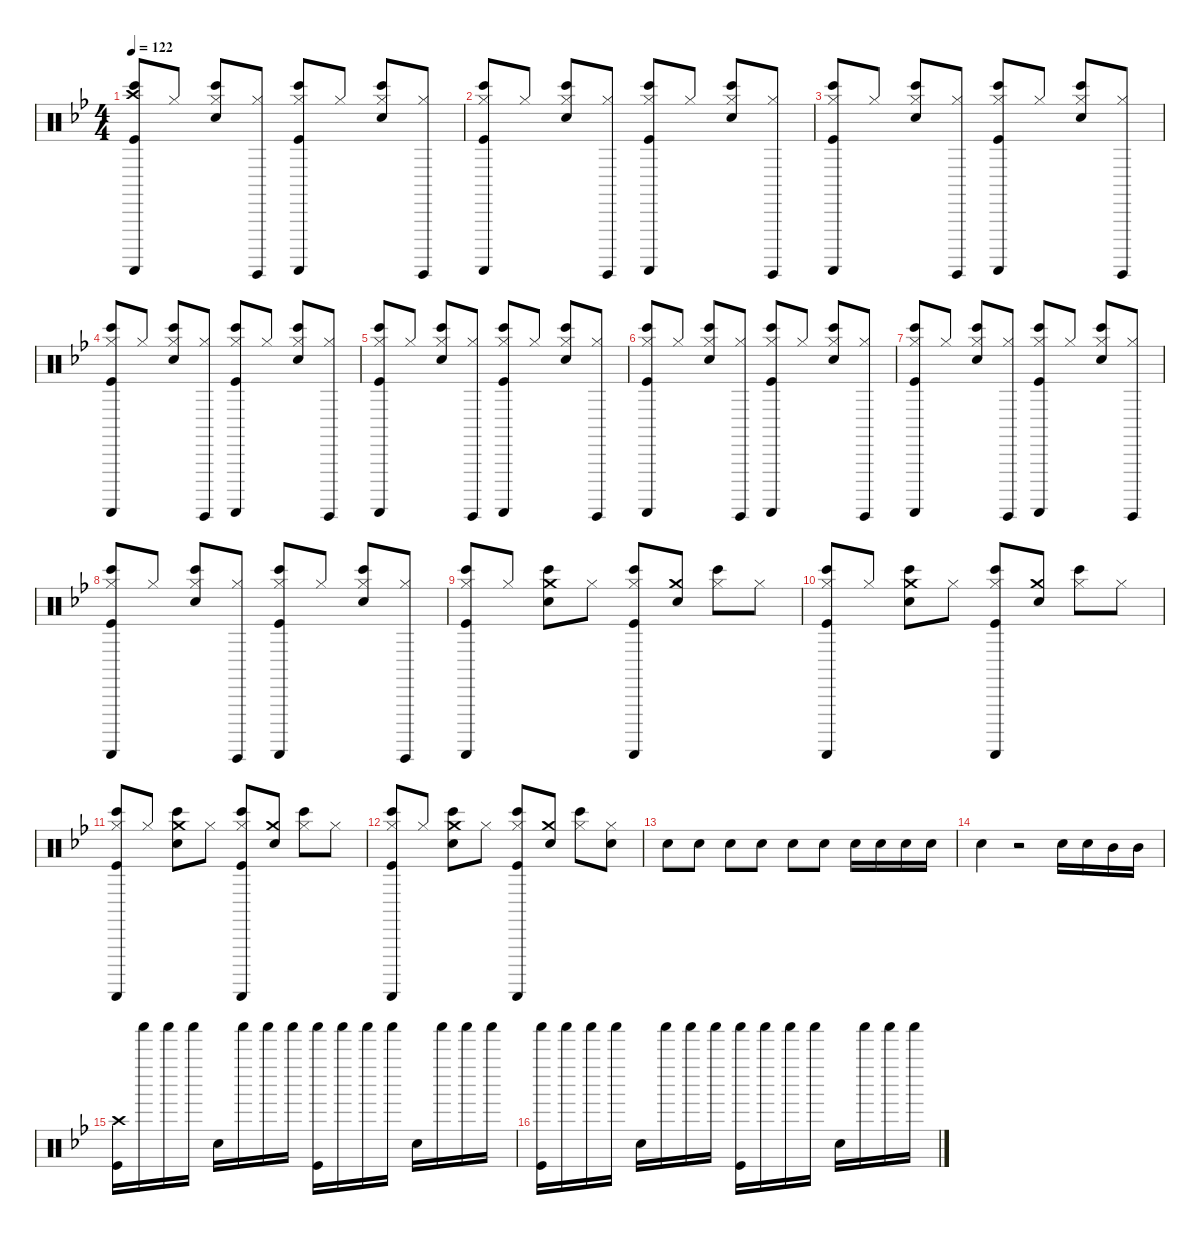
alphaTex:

\defaultSystemsLayout 4
\hideDynamics
\bracketExtendMode nobrackets
\singleTrackTrackNamePolicy hidden
\multiTrackTrackNamePolicy hidden
\firstSystemTrackNameMode fullname
\firstSystemTrackNameOrientation horizontal
\otherSystemsTrackNameOrientation horizontal
\track ("Percussions" "drm.") {instrument percussion}
\staff {score}
\articulation defaults
\ts (4 4)
\tempo 122
\clef neutral
\ks bb
("Crash high (hit)"{acc forcenatural} "Bongo High (hit)"{acc forcenatural} "Guiro (scrap-return)"{acc forcenatural} "Kick (hit)"{acc forcenatural}).8{dy f beam Up} "Hi-Hat (closed)"{acc forcenatural}.8{dy mp beam Up} ("Hi-Hat (closed)"{acc forcenatural} "Bongo High (hit)"{acc forcenatural} "Snare (hit) 2"{acc forcenatural}).8{dy f beam Up} ("Hi-Hat (closed)"{acc forcenatural} "Guiro (hit)"{acc forcenatural}).8{dy mp beam Up} ("Hi-Hat (closed)"{acc forcenatural} "Bongo High (hit)"{acc forcenatural} "Guiro (scrap-return)"{acc forcenatural} "Kick (hit)"{acc forcenatural}).8{dy f beam Up} "Hi-Hat (closed)"{acc forcenatural}.8{dy mp beam Up} ("Hi-Hat (closed)"{acc forcenatural} "Bongo High (hit)"{acc forcenatural} "Snare (hit) 2"{acc forcenatural}).8{dy f beam Up} ("Hi-Hat (closed)"{acc forcenatural} "Guiro (hit)"{acc forcenatural}).8{dy mp beam Up} |
("Hi-Hat (closed)"{acc forcenatural} "Bongo High (hit)"{acc forcenatural} "Guiro (scrap-return)"{acc forcenatural} "Kick (hit)"{acc forcenatural}).8{dy f beam Up} "Hi-Hat (closed)"{acc forcenatural}.8{dy mp beam Up} ("Hi-Hat (closed)"{acc forcenatural} "Bongo High (hit)"{acc forcenatural} "Snare (hit) 2"{acc forcenatural}).8{dy f beam Up} ("Hi-Hat (closed)"{acc forcenatural} "Guiro (hit)"{acc forcenatural}).8{dy mp beam Up} ("Hi-Hat (closed)"{acc forcenatural} "Bongo High (hit)"{acc forcenatural} "Guiro (scrap-return)"{acc forcenatural} "Kick (hit)"{acc forcenatural}).8{dy f beam Up} "Hi-Hat (closed)"{acc forcenatural}.8{dy mp beam Up} ("Hi-Hat (closed)"{acc forcenatural} "Bongo High (hit)"{acc forcenatural} "Snare (hit) 2"{acc forcenatural}).8{dy f beam Up} ("Hi-Hat (closed)"{acc forcenatural} "Guiro (hit)"{acc forcenatural}).8{dy mp beam Up} |
("Hi-Hat (closed)"{acc forcenatural} "Bongo High (hit)"{acc forcenatural} "Guiro (scrap-return)"{acc forcenatural} "Kick (hit)"{acc forcenatural}).8{dy f beam Up} "Hi-Hat (closed)"{acc forcenatural}.8{dy mp beam Up} ("Hi-Hat (closed)"{acc forcenatural} "Bongo High (hit)"{acc forcenatural} "Snare (hit) 2"{acc forcenatural}).8{dy f beam Up} ("Hi-Hat (closed)"{acc forcenatural} "Guiro (hit)"{acc forcenatural}).8{dy mp beam Up} ("Hi-Hat (closed)"{acc forcenatural} "Bongo High (hit)"{acc forcenatural} "Guiro (scrap-return)"{acc forcenatural} "Kick (hit)"{acc forcenatural}).8{dy f beam Up} "Hi-Hat (closed)"{acc forcenatural}.8{dy mp beam Up} ("Hi-Hat (closed)"{acc forcenatural} "Bongo High (hit)"{acc forcenatural} "Snare (hit) 2"{acc forcenatural}).8{dy f beam Up} ("Hi-Hat (closed)"{acc forcenatural} "Guiro (hit)"{acc forcenatural}).8{dy mp beam Up} |
("Hi-Hat (closed)"{acc forcenatural} "Bongo High (hit)"{acc forcenatural} "Guiro (scrap-return)"{acc forcenatural} "Kick (hit)"{acc forcenatural}).8{dy f beam Up} "Hi-Hat (closed)"{acc forcenatural}.8{dy mp beam Up} ("Hi-Hat (closed)"{acc forcenatural} "Bongo High (hit)"{acc forcenatural} "Snare (hit) 2"{acc forcenatural}).8{dy f beam Up} ("Hi-Hat (closed)"{acc forcenatural} "Guiro (hit)"{acc forcenatural}).8{dy mp beam Up} ("Hi-Hat (closed)"{acc forcenatural} "Bongo High (hit)"{acc forcenatural} "Guiro (scrap-return)"{acc forcenatural} "Kick (hit)"{acc forcenatural}).8{dy f beam Up} "Hi-Hat (closed)"{acc forcenatural}.8{dy mp beam Up} ("Hi-Hat (closed)"{acc forcenatural} "Bongo High (hit)"{acc forcenatural} "Snare (hit) 2"{acc forcenatural}).8{dy f beam Up} ("Hi-Hat (closed)"{acc forcenatural} "Guiro (hit)"{acc forcenatural}).8{dy mp beam Up} |
("Hi-Hat (closed)"{acc forcenatural} "Bongo High (hit)"{acc forcenatural} "Guiro (scrap-return)"{acc forcenatural} "Kick (hit)"{acc forcenatural}).8{dy f beam Up} "Hi-Hat (closed)"{acc forcenatural}.8{dy mp beam Up} ("Hi-Hat (closed)"{acc forcenatural} "Bongo High (hit)"{acc forcenatural} "Snare (hit) 2"{acc forcenatural}).8{dy f beam Up} ("Hi-Hat (closed)"{acc forcenatural} "Guiro (hit)"{acc forcenatural}).8{dy mp beam Up} ("Hi-Hat (closed)"{acc forcenatural} "Bongo High (hit)"{acc forcenatural} "Guiro (scrap-return)"{acc forcenatural} "Kick (hit)"{acc forcenatural}).8{dy f beam Up} "Hi-Hat (closed)"{acc forcenatural}.8{dy mp beam Up} ("Hi-Hat (closed)"{acc forcenatural} "Bongo High (hit)"{acc forcenatural} "Snare (hit) 2"{acc forcenatural}).8{dy f beam Up} ("Hi-Hat (closed)"{acc forcenatural} "Guiro (hit)"{acc forcenatural}).8{dy mp beam Up} |
("Hi-Hat (closed)"{acc forcenatural} "Bongo High (hit)"{acc forcenatural} "Guiro (scrap-return)"{acc forcenatural} "Kick (hit)"{acc forcenatural}).8{dy f beam Up} "Hi-Hat (closed)"{acc forcenatural}.8{dy mp beam Up} ("Hi-Hat (closed)"{acc forcenatural} "Bongo High (hit)"{acc forcenatural} "Snare (hit) 2"{acc forcenatural}).8{dy f beam Up} ("Hi-Hat (closed)"{acc forcenatural} "Guiro (hit)"{acc forcenatural}).8{dy mp beam Up} ("Hi-Hat (closed)"{acc forcenatural} "Bongo High (hit)"{acc forcenatural} "Guiro (scrap-return)"{acc forcenatural} "Kick (hit)"{acc forcenatural}).8{dy f beam Up} "Hi-Hat (closed)"{acc forcenatural}.8{dy mp beam Up} ("Hi-Hat (closed)"{acc forcenatural} "Bongo High (hit)"{acc forcenatural} "Snare (hit) 2"{acc forcenatural}).8{dy f beam Up} ("Hi-Hat (closed)"{acc forcenatural} "Guiro (hit)"{acc forcenatural}).8{dy mp beam Up} |
("Hi-Hat (closed)"{acc forcenatural} "Bongo High (hit)"{acc forcenatural} "Guiro (scrap-return)"{acc forcenatural} "Kick (hit)"{acc forcenatural}).8{dy f beam Up} "Hi-Hat (closed)"{acc forcenatural}.8{dy mp beam Up} ("Hi-Hat (closed)"{acc forcenatural} "Bongo High (hit)"{acc forcenatural} "Snare (hit) 2"{acc forcenatural}).8{dy f beam Up} ("Hi-Hat (closed)"{acc forcenatural} "Guiro (hit)"{acc forcenatural}).8{dy mp beam Up} ("Hi-Hat (closed)"{acc forcenatural} "Bongo High (hit)"{acc forcenatural} "Guiro (scrap-return)"{acc forcenatural} "Kick (hit)"{acc forcenatural}).8{dy f beam Up} "Hi-Hat (closed)"{acc forcenatural}.8{dy mp beam Up} ("Hi-Hat (closed)"{acc forcenatural} "Bongo High (hit)"{acc forcenatural} "Snare (hit) 2"{acc forcenatural}).8{dy f beam Up} ("Hi-Hat (closed)"{acc forcenatural} "Guiro (hit)"{acc forcenatural}).8{dy mp beam Up} |
("Hi-Hat (closed)"{acc forcenatural} "Bongo High (hit)"{acc forcenatural} "Guiro (scrap-return)"{acc forcenatural} "Kick (hit)"{acc forcenatural}).8{dy f beam Up} "Hi-Hat (closed)"{acc forcenatural}.8{dy mp beam Up} ("Hi-Hat (closed)"{acc forcenatural} "Bongo High (hit)"{acc forcenatural} "Snare (hit) 2"{acc forcenatural}).8{dy f beam Up} ("Hi-Hat (closed)"{acc forcenatural} "Guiro (hit)"{acc forcenatural}).8{dy mp beam Up} ("Hi-Hat (closed)"{acc forcenatural} "Bongo High (hit)"{acc forcenatural} "Guiro (scrap-return)"{acc forcenatural} "Kick (hit)"{acc forcenatural}).8{dy f beam Up} "Hi-Hat (closed)"{acc forcenatural}.8{dy mp beam Up} ("Hi-Hat (closed)"{acc forcenatural} "Bongo High (hit)"{acc forcenatural} "Snare (hit) 2"{acc forcenatural}).8{dy f beam Up} ("Hi-Hat (closed)"{acc forcenatural} "Guiro (hit)"{acc forcenatural}).8{dy mp beam Up} |
("Hi-Hat (closed)"{acc forcenatural} "Bongo High (hit)"{acc forcenatural} "Guiro (scrap-return)"{acc forcenatural} "Kick (hit)"{acc forcenatural}).8{dy f beam Up} "Hi-Hat (closed)"{acc forcenatural}.8{dy mp beam Up} ("Crash medium (hit)"{acc forcenatural} "Bongo High (hit)"{acc forcenatural} "Snare (hit) 2"{acc forcenatural}).8{dy f beam Down} "Hi-Hat (closed)"{acc forcenatural}.8{dy mp beam Down} ("Hi-Hat (closed)"{acc forcenatural} "Bongo High (hit)"{acc forcenatural} "Guiro (scrap-return)"{acc forcenatural} "Kick (hit)"{acc forcenatural}).8{dy f beam Up} ("Crash medium (hit)"{acc forcenatural} "Snare (hit) 2"{acc forcenatural}).8{beam Up} ("Hi-Hat (closed)"{acc forcenatural} "Bongo High (hit)"{acc forcenatural}).8{beam Down} "Hi-Hat (closed)"{acc forcenatural}.8{dy mp beam Down} |
("Hi-Hat (closed)"{acc forcenatural} "Bongo High (hit)"{acc forcenatural} "Guiro (scrap-return)"{acc forcenatural} "Kick (hit)"{acc forcenatural}).8{dy f beam Up} "Hi-Hat (closed)"{acc forcenatural}.8{dy mp beam Up} ("Crash medium (hit)"{acc forcenatural} "Bongo High (hit)"{acc forcenatural} "Snare (hit) 2"{acc forcenatural}).8{dy f beam Down} "Hi-Hat (closed)"{acc forcenatural}.8{dy mp beam Down} ("Hi-Hat (closed)"{acc forcenatural} "Bongo High (hit)"{acc forcenatural} "Guiro (scrap-return)"{acc forcenatural} "Kick (hit)"{acc forcenatural}).8{dy f beam Up} ("Crash medium (hit)"{acc forcenatural} "Snare (hit) 2"{acc forcenatural}).8{beam Up} ("Hi-Hat (closed)"{acc forcenatural} "Bongo High (hit)"{acc forcenatural}).8{beam Down} "Hi-Hat (closed)"{acc forcenatural}.8{dy mp beam Down} |
("Hi-Hat (closed)"{acc forcenatural} "Bongo High (hit)"{acc forcenatural} "Guiro (scrap-return)"{acc forcenatural} "Kick (hit)"{acc forcenatural}).8{dy f beam Up} "Hi-Hat (closed)"{acc forcenatural}.8{dy mp beam Up} ("Crash medium (hit)"{acc forcenatural} "Bongo High (hit)"{acc forcenatural} "Snare (hit) 2"{acc forcenatural}).8{dy f beam Down} "Hi-Hat (closed)"{acc forcenatural}.8{dy mp beam Down} ("Hi-Hat (closed)"{acc forcenatural} "Bongo High (hit)"{acc forcenatural} "Guiro (scrap-return)"{acc forcenatural} "Kick (hit)"{acc forcenatural}).8{dy f beam Up} ("Crash medium (hit)"{acc forcenatural} "Snare (hit) 2"{acc forcenatural}).8{beam Up} ("Hi-Hat (closed)"{acc forcenatural} "Bongo High (hit)"{acc forcenatural}).8{beam Down} "Hi-Hat (closed)"{acc forcenatural}.8{dy mp beam Down} |
("Hi-Hat (closed)"{acc forcenatural} "Bongo High (hit)"{acc forcenatural} "Guiro (scrap-return)"{acc forcenatural} "Kick (hit)"{acc forcenatural}).8{dy f beam Up} "Hi-Hat (closed)"{acc forcenatural}.8{dy mp beam Up} ("Crash medium (hit)"{acc forcenatural} "Bongo High (hit)"{acc forcenatural} "Snare (hit) 2"{acc forcenatural}).8{dy f beam Down} "Hi-Hat (closed)"{acc forcenatural}.8{dy mp beam Down} ("Hi-Hat (closed)"{acc forcenatural} "Bongo High (hit)"{acc forcenatural} "Guiro (scrap-return)"{acc forcenatural} "Kick (hit)"{acc forcenatural}).8{dy f beam Up} ("Crash medium (hit)"{acc forcenatural} "Snare (hit) 2"{acc forcenatural}).8{beam Up} ("Hi-Hat (closed)"{acc forcenatural} "Bongo High (hit)"{acc forcenatural}).8{beam Down} ("Hi-Hat (closed)"{acc forcenatural} "Snare (hit) 2"{acc forcenatural}).8{dy mp beam Down} |
"Snare (hit) 2"{acc forcenatural}.8{beam Down} "Snare (hit) 2"{acc forcenatural}.8{beam Down} "Snare (hit) 2"{acc forcenatural}.8{beam Down} "Snare (hit) 2"{acc forcenatural}.8{beam Down} "Snare (hit) 2"{acc forcenatural}.8{dy mf beam Down} "Snare (hit) 2"{acc forcenatural}.8{beam Down} "Snare (hit) 2"{acc forcenatural}.16{dy f beam Down} "Snare (hit) 2"{acc forcenatural}.16{beam Down} "Snare (hit) 2"{acc forcenatural}.16{beam Down} "Snare (hit) 2"{acc forcenatural}.16{beam Down} |
"Snare (hit) 2"{acc forcenatural}.4{beam Down} r.2{beam Down} "Snare (hit) 2"{acc forcenatural}.16{beam Down} "Snare (hit) 2"{acc forcenatural}.16{beam Down} "Mid Tom (hit)"{acc forcenatural}.16{beam Down} "Mid Tom (hit)"{acc forcenatural}.16{beam Down} |
("Crash high (hit)"{acc forcenatural} "Kick (hit)"{acc forcenatural}).16{beam Down} "Shaker (hit)"{acc forcenatural}.16{dy mp beam Down} "Shaker (hit)"{acc forcenatural}.16{beam Down} "Shaker (hit)"{acc forcenatural}.16{beam Down} "Snare (hit) 2"{acc forcenatural}.16{dy f beam Down} "Shaker (hit)"{acc forcenatural}.16{dy mp beam Down} "Shaker (hit)"{acc forcenatural}.16{beam Down} "Shaker (hit)"{acc forcenatural}.16{beam Down} ("Shaker (hit)"{acc forcenatural} "Kick (hit)"{acc forcenatural}).16{dy f beam Down} "Shaker (hit)"{acc forcenatural}.16{dy mp beam Down} "Shaker (hit)"{acc forcenatural}.16{beam Down} "Shaker (hit)"{acc forcenatural}.16{beam Down} "Snare (hit) 2"{acc forcenatural}.16{dy f beam Down} "Shaker (hit)"{acc forcenatural}.16{dy mp beam Down} "Shaker (hit)"{acc forcenatural}.16{beam Down} "Shaker (hit)"{acc forcenatural}.16{beam Down} |
("Shaker (hit)"{acc forcenatural} "Kick (hit)"{acc forcenatural}).16{dy f beam Down} "Shaker (hit)"{acc forcenatural}.16{dy mp beam Down} "Shaker (hit)"{acc forcenatural}.16{beam Down} "Shaker (hit)"{acc forcenatural}.16{beam Down} "Snare (hit) 2"{acc forcenatural}.16{dy f beam Down} "Shaker (hit)"{acc forcenatural}.16{dy mp beam Down} "Shaker (hit)"{acc forcenatural}.16{beam Down} "Shaker (hit)"{acc forcenatural}.16{beam Down} ("Shaker (hit)"{acc forcenatural} "Kick (hit)"{acc forcenatural}).16{dy f beam Down} "Shaker (hit)"{acc forcenatural}.16{dy mp beam Down} "Shaker (hit)"{acc forcenatural}.16{beam Down} "Shaker (hit)"{acc forcenatural}.16{beam Down} "Snare (hit) 2"{acc forcenatural}.16{dy f beam Down} "Shaker (hit)"{acc forcenatural}.16{dy mp beam Down} "Shaker (hit)"{acc forcenatural}.16{beam Down} "Shaker (hit)"{acc forcenatural}.16{beam Down}
